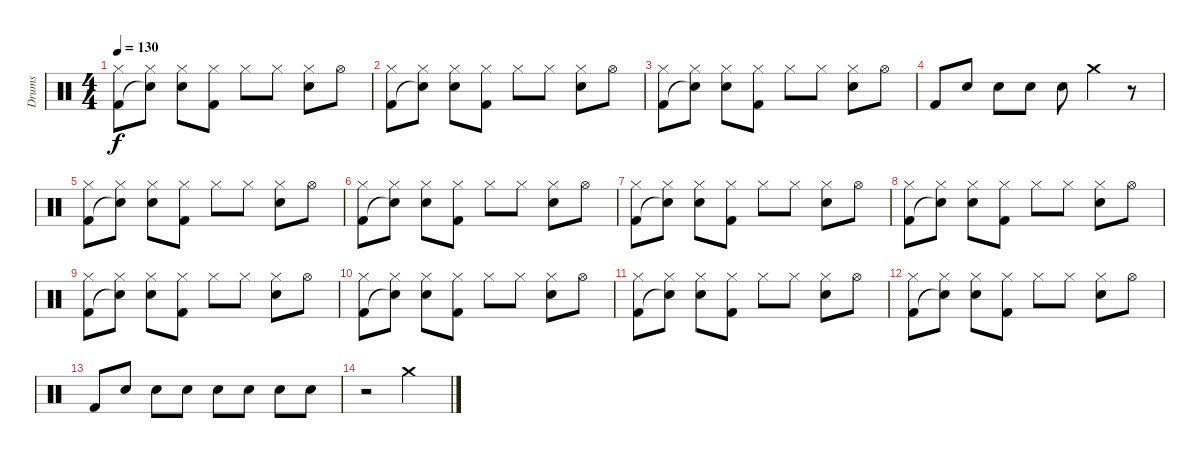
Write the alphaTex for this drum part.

\track ("Drums" "Drums") {instrument percussion}
\staff {score}
\articulation defaults
\ts (4 4)
\tempo 130
\clef neutral
\ks c
("Hi-Hat (closed)" "Kick (hit) 2").8{dy f} ("Hi-Hat (closed)" "Snare (hit)"{t}).8 ("Hi-Hat (closed)" "Electric Snare (hit)").8 ("Hi-Hat (closed)" "Kick (hit) 2").8 "Hi-Hat (closed)".8 "Hi-Hat (closed)".8 ("Hi-Hat (closed)" "Electric Snare (hit)").8 "Hi-Hat (open)".8 |
("Hi-Hat (closed)" "Kick (hit) 2").8 ("Hi-Hat (closed)" "Snare (hit)"{t}).8 ("Hi-Hat (closed)" "Electric Snare (hit)").8 ("Hi-Hat (closed)" "Kick (hit) 2").8 "Hi-Hat (closed)".8 "Hi-Hat (closed)".8 ("Hi-Hat (closed)" "Electric Snare (hit)").8 "Hi-Hat (open)".8 |
("Hi-Hat (closed)" "Kick (hit) 2").8 ("Hi-Hat (closed)" "Snare (hit)"{t}).8 ("Hi-Hat (closed)" "Electric Snare (hit)").8 ("Hi-Hat (closed)" "Kick (hit) 2").8 "Hi-Hat (closed)".8 "Hi-Hat (closed)".8 ("Hi-Hat (closed)" "Electric Snare (hit)").8 "Hi-Hat (open)".8 |
"Kick (hit) 2".8 "Electric Snare (hit)".8 "Electric Snare (hit)".8 "Electric Snare (hit)".8 "Electric Snare (hit)".8 "Crash medium (hit)".4 r.8 |
("Hi-Hat (closed)" "Kick (hit) 2").8 ("Hi-Hat (closed)" "Snare (hit)"{t}).8 ("Hi-Hat (closed)" "Electric Snare (hit)").8 ("Hi-Hat (closed)" "Kick (hit) 2").8 "Hi-Hat (closed)".8 "Hi-Hat (closed)".8 ("Hi-Hat (closed)" "Electric Snare (hit)").8 "Hi-Hat (open)".8 |
("Hi-Hat (closed)" "Kick (hit) 2").8 ("Hi-Hat (closed)" "Snare (hit)"{t}).8 ("Hi-Hat (closed)" "Electric Snare (hit)").8 ("Hi-Hat (closed)" "Kick (hit) 2").8 "Hi-Hat (closed)".8 "Hi-Hat (closed)".8 ("Hi-Hat (closed)" "Electric Snare (hit)").8 "Hi-Hat (open)".8 |
("Hi-Hat (closed)" "Kick (hit) 2").8 ("Hi-Hat (closed)" "Snare (hit)"{t}).8 ("Hi-Hat (closed)" "Electric Snare (hit)").8 ("Hi-Hat (closed)" "Kick (hit) 2").8 "Hi-Hat (closed)".8 "Hi-Hat (closed)".8 ("Hi-Hat (closed)" "Electric Snare (hit)").8 "Hi-Hat (open)".8 |
("Hi-Hat (closed)" "Kick (hit) 2").8 ("Hi-Hat (closed)" "Snare (hit)"{t}).8 ("Hi-Hat (closed)" "Electric Snare (hit)").8 ("Hi-Hat (closed)" "Kick (hit) 2").8 "Hi-Hat (closed)".8 "Hi-Hat (closed)".8 ("Hi-Hat (closed)" "Electric Snare (hit)").8 "Hi-Hat (open)".8 |
("Hi-Hat (closed)" "Kick (hit) 2").8 ("Hi-Hat (closed)" "Snare (hit)"{t}).8 ("Hi-Hat (closed)" "Electric Snare (hit)").8 ("Hi-Hat (closed)" "Kick (hit) 2").8 "Hi-Hat (closed)".8 "Hi-Hat (closed)".8 ("Hi-Hat (closed)" "Electric Snare (hit)").8 "Hi-Hat (open)".8 |
("Hi-Hat (closed)" "Kick (hit) 2").8 ("Hi-Hat (closed)" "Snare (hit)"{t}).8 ("Hi-Hat (closed)" "Electric Snare (hit)").8 ("Hi-Hat (closed)" "Kick (hit) 2").8 "Hi-Hat (closed)".8 "Hi-Hat (closed)".8 ("Hi-Hat (closed)" "Electric Snare (hit)").8 "Hi-Hat (open)".8 |
("Hi-Hat (closed)" "Kick (hit) 2").8 ("Hi-Hat (closed)" "Snare (hit)"{t}).8 ("Hi-Hat (closed)" "Electric Snare (hit)").8 ("Hi-Hat (closed)" "Kick (hit) 2").8 "Hi-Hat (closed)".8 "Hi-Hat (closed)".8 ("Hi-Hat (closed)" "Electric Snare (hit)").8 "Hi-Hat (open)".8 |
("Hi-Hat (closed)" "Kick (hit) 2").8 ("Hi-Hat (closed)" "Snare (hit)"{t}).8 ("Hi-Hat (closed)" "Electric Snare (hit)").8 ("Hi-Hat (closed)" "Kick (hit) 2").8 "Hi-Hat (closed)".8 "Hi-Hat (closed)".8 ("Hi-Hat (closed)" "Electric Snare (hit)").8 "Hi-Hat (open)".8 |
"Kick (hit) 2".8 "Electric Snare (hit)".8 "Electric Snare (hit)".8 "Electric Snare (hit)".8 "Electric Snare (hit)".8 "Electric Snare (hit)".8 "Electric Snare (hit)".8 "Electric Snare (hit)".8 |
r.2 "Crash medium (hit)".2
